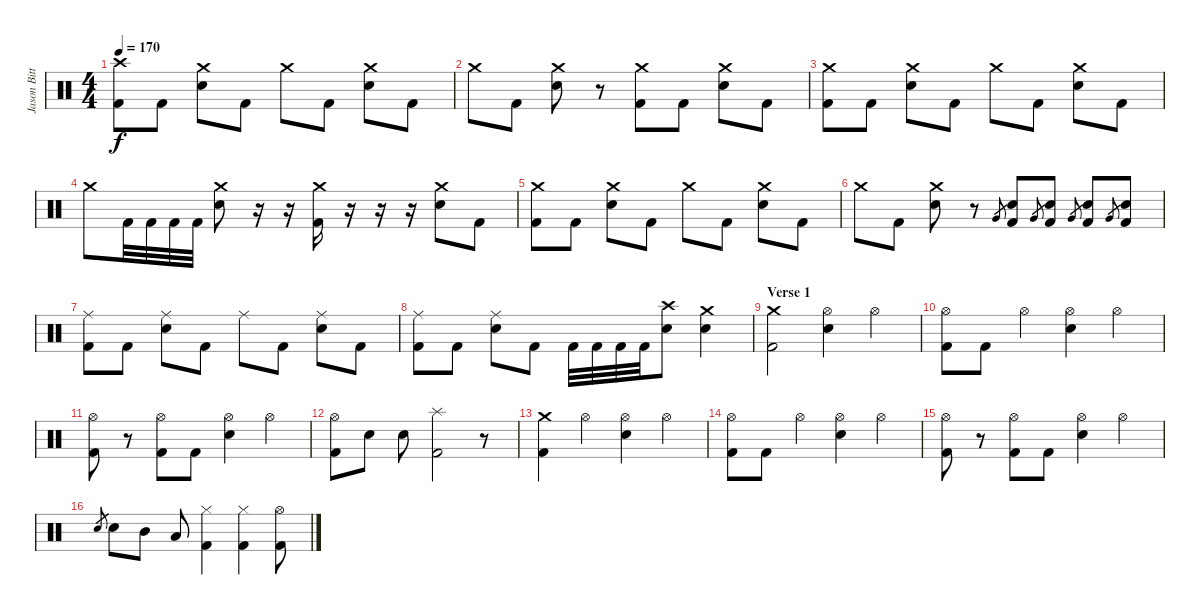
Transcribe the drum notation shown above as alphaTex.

\track ("Jason Bittner" "Jason Bitt") {instrument percussion}
\staff {score}
\articulation defaults
\ts (4 4)
\tempo 170
\clef neutral
\ks c
("Crash high (hit)" "Kick (hit) 2").8{dy f} "Kick (hit) 2".8 ("Crash medium (hit)" "Electric Snare (hit)").8 "Kick (hit) 2".8 "Crash medium (hit)".8 "Kick (hit) 2".8 ("Crash medium (hit)" "Electric Snare (hit)").8 "Kick (hit) 2".8 |
"Crash medium (hit)".8 "Kick (hit) 2".8 ("Crash medium (hit)" "Electric Snare (hit)").8 r.8 ("Crash medium (hit)" "Kick (hit) 2").8 "Kick (hit) 2".8 ("Crash medium (hit)" "Electric Snare (hit)").8 "Kick (hit) 2".8 |
("Crash medium (hit)" "Kick (hit) 2").8 "Kick (hit) 2".8 ("Crash medium (hit)" "Electric Snare (hit)").8 "Kick (hit) 2".8 "Crash medium (hit)".8 "Kick (hit) 2".8 ("Crash medium (hit)" "Electric Snare (hit)").8 "Kick (hit) 2".8 |
"Crash medium (hit)".8 "Kick (hit) 2".32 "Kick (hit) 2".32 "Kick (hit) 2".32 "Kick (hit) 2".32 ("Crash medium (hit)" "Electric Snare (hit)").8 r.16 r.16 ("Crash medium (hit)" "Kick (hit) 2").16 r.16 r.16 r.16 ("Crash medium (hit)" "Electric Snare (hit)").8 "Kick (hit) 2".8 |
("Crash medium (hit)" "Kick (hit) 2").8 "Kick (hit) 2".8 ("Crash medium (hit)" "Electric Snare (hit)").8 "Kick (hit) 2".8 "Crash medium (hit)".8 "Kick (hit) 2".8 ("Crash medium (hit)" "Electric Snare (hit)").8 "Kick (hit) 2".8 |
"Crash medium (hit)".8 "Kick (hit) 2".8 ("Crash medium (hit)" "Electric Snare (hit)").8 r.8 "Very Low Tom (hit)".8{gr} ("Kick (hit) 2" "Electric Snare (hit)").8 "Very Low Tom (hit)".8{gr} ("Kick (hit) 2" "Electric Snare (hit)").8 "Very Low Tom (hit)".8{gr} ("Kick (hit) 2" "Electric Snare (hit)").8 "Very Low Tom (hit)".8{gr} ("Kick (hit) 2" "Electric Snare (hit)").8 |
("Ride (middle)" "Kick (hit) 2").8 "Kick (hit) 2".8 ("Ride (middle)" "Electric Snare (hit)").8 "Kick (hit) 2".8 "Ride (middle)".8 "Kick (hit) 2".8 ("Ride (middle)" "Electric Snare (hit)").8 "Kick (hit) 2".8 |
("Ride (middle)" "Kick (hit) 2").8 "Kick (hit) 2".8 ("Ride (middle)" "Electric Snare (hit)").8 "Kick (hit) 2".8 "Kick (hit) 2".32 "Kick (hit) 2".32 "Kick (hit) 2".32 "Kick (hit) 2".32 ("Crash high (hit)" "Electric Snare (hit)").8 ("Crash medium (hit)" "Electric Snare (hit)").4 |
\section ("" "Verse 1")
("Crash medium (hit)" "Kick (hit) 2").2 ("Hi-Hat (open)" "Electric Snare (hit)").4 "Hi-Hat (open)".4 |
("Hi-Hat (open)" "Kick (hit) 2").8 "Kick (hit) 2".8 "Hi-Hat (open)".4 ("Hi-Hat (open)" "Electric Snare (hit)").4 "Hi-Hat (open)".4 |
("Hi-Hat (open)" "Kick (hit) 2").8 r.8 ("Hi-Hat (open)" "Kick (hit) 2").8 "Kick (hit) 2".8 ("Hi-Hat (open)" "Electric Snare (hit)").4 "Hi-Hat (open)".4 |
("Hi-Hat (open)" "Kick (hit) 2").8 "Electric Snare (hit)".8 "Electric Snare (hit)".8 ("Splash (hit)" "Kick (hit) 2").2 r.8 |
("Crash medium (hit)" "Kick (hit) 2").4 "Hi-Hat (open)".4 ("Hi-Hat (open)" "Electric Snare (hit)").4 "Hi-Hat (open)".4 |
("Hi-Hat (open)" "Kick (hit) 2").8 "Kick (hit) 2".8 "Hi-Hat (open)".4 ("Hi-Hat (open)" "Electric Snare (hit)").4 "Hi-Hat (open)".4 |
("Hi-Hat (open)" "Kick (hit) 2").8 r.8 ("Hi-Hat (open)" "Kick (hit) 2").8 "Kick (hit) 2".8 ("Hi-Hat (open)" "Electric Snare (hit)").4 "Hi-Hat (open)".4 |
"Electric Snare (hit)".8{gr} "Electric Snare (hit)".8 "Mid Tom (hit)".8 "Low Tom (hit)".8 ("Hi-Hat (closed)" "Kick (hit) 2").4 ("Hi-Hat (closed)" "Kick (hit) 2").4 ("Hi-Hat (open)" "Kick (hit) 2").8
